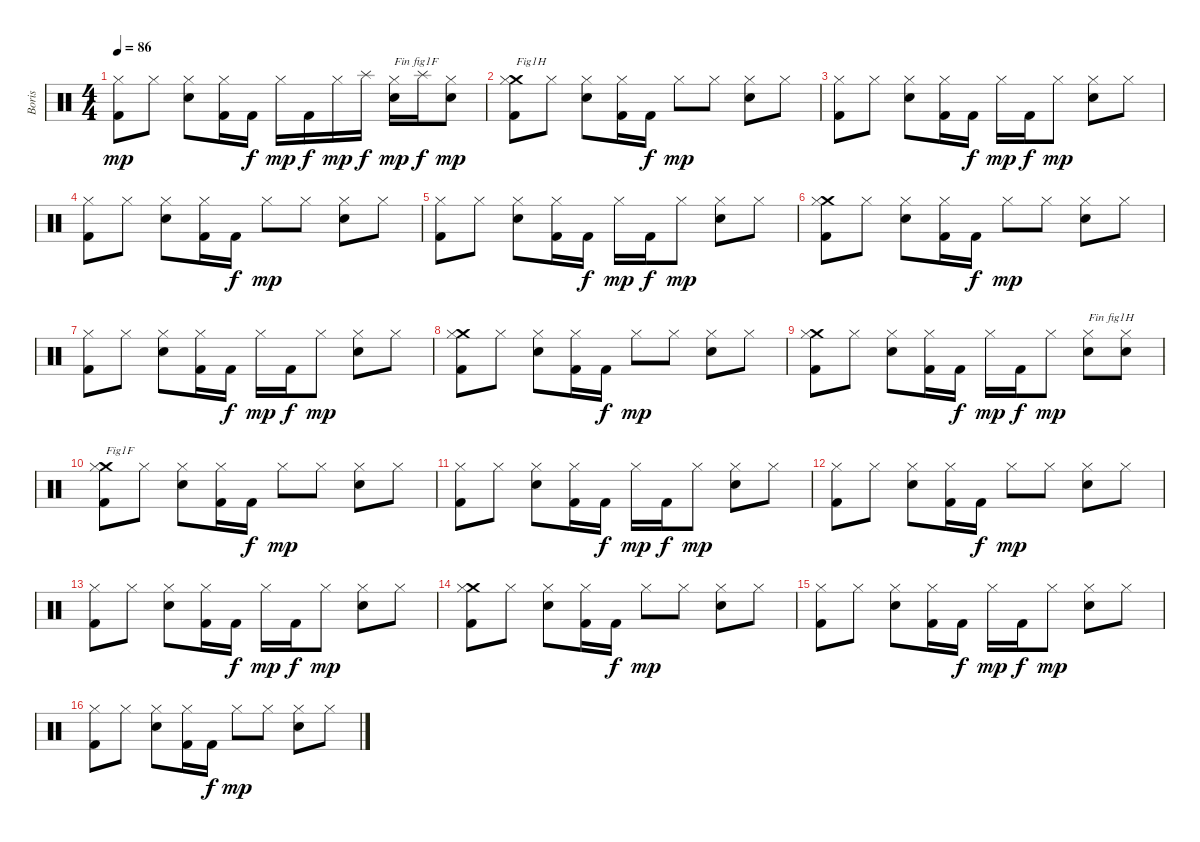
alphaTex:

\track ("Boris" "Boris") {instrument percussion}
\staff {score}
\articulation defaults
\ts (4 4)
\tempo 86
\clef neutral
\ks c
("Kick (hit) 2" "Hi-Hat (closed)").8{dy mp} "Hi-Hat (closed)".8 ("Electric Snare (hit)" "Hi-Hat (closed)").8 ("Kick (hit) 2" "Hi-Hat (closed)").16 "Kick (hit) 2".16{dy f} "Hi-Hat (closed)".16{dy mp} "Kick (hit) 2".16{dy f} "Hi-Hat (closed)".16{dy mp} "Splash (hit)".16{dy f} ("Electric Snare (hit)" "Hi-Hat (closed)").16{txt "Fin fig1F" dy mp} "Splash (hit)".16{dy f} ("Electric Snare (hit)" "Hi-Hat (closed)").8{dy mp} |
("Kick (hit) 2" "Crash medium (hit)" "Hi-Hat (closed)").8{txt "Fig1H"} "Hi-Hat (closed)".8 ("Electric Snare (hit)" "Hi-Hat (closed)").8 ("Kick (hit) 2" "Hi-Hat (closed)").16 "Kick (hit) 2".16{dy f} "Hi-Hat (closed)".8{dy mp} "Hi-Hat (closed)".8 ("Electric Snare (hit)" "Hi-Hat (closed)").8 "Hi-Hat (closed)".8 |
("Kick (hit) 2" "Hi-Hat (closed)").8 "Hi-Hat (closed)".8 ("Electric Snare (hit)" "Hi-Hat (closed)").8 ("Kick (hit) 2" "Hi-Hat (closed)").16 "Kick (hit) 2".16{dy f} "Hi-Hat (closed)".16{dy mp} "Kick (hit) 2".16{dy f} "Hi-Hat (closed)".8{dy mp} ("Electric Snare (hit)" "Hi-Hat (closed)").8 "Hi-Hat (closed)".8 |
("Kick (hit) 2" "Hi-Hat (closed)").8 "Hi-Hat (closed)".8 ("Electric Snare (hit)" "Hi-Hat (closed)").8 ("Kick (hit) 2" "Hi-Hat (closed)").16 "Kick (hit) 2".16{dy f} "Hi-Hat (closed)".8{dy mp} "Hi-Hat (closed)".8 ("Electric Snare (hit)" "Hi-Hat (closed)").8 "Hi-Hat (closed)".8 |
("Kick (hit) 2" "Hi-Hat (closed)").8 "Hi-Hat (closed)".8 ("Electric Snare (hit)" "Hi-Hat (closed)").8 ("Kick (hit) 2" "Hi-Hat (closed)").16 "Kick (hit) 2".16{dy f} "Hi-Hat (closed)".16{dy mp} "Kick (hit) 2".16{dy f} "Hi-Hat (closed)".8{dy mp} ("Electric Snare (hit)" "Hi-Hat (closed)").8 "Hi-Hat (closed)".8 |
("Kick (hit) 2" "Crash medium (hit)" "Hi-Hat (closed)").8 "Hi-Hat (closed)".8 ("Electric Snare (hit)" "Hi-Hat (closed)").8 ("Kick (hit) 2" "Hi-Hat (closed)").16 "Kick (hit) 2".16{dy f} "Hi-Hat (closed)".8{dy mp} "Hi-Hat (closed)".8 ("Electric Snare (hit)" "Hi-Hat (closed)").8 "Hi-Hat (closed)".8 |
("Kick (hit) 2" "Hi-Hat (closed)").8 "Hi-Hat (closed)".8 ("Electric Snare (hit)" "Hi-Hat (closed)").8 ("Kick (hit) 2" "Hi-Hat (closed)").16 "Kick (hit) 2".16{dy f} "Hi-Hat (closed)".16{dy mp} "Kick (hit) 2".16{dy f} "Hi-Hat (closed)".8{dy mp} ("Electric Snare (hit)" "Hi-Hat (closed)").8 "Hi-Hat (closed)".8 |
("Kick (hit) 2" "Crash medium (hit)" "Hi-Hat (closed)").8 "Hi-Hat (closed)".8 ("Electric Snare (hit)" "Hi-Hat (closed)").8 ("Kick (hit) 2" "Hi-Hat (closed)").16 "Kick (hit) 2".16{dy f} "Hi-Hat (closed)".8{dy mp} "Hi-Hat (closed)".8 ("Electric Snare (hit)" "Hi-Hat (closed)").8 "Hi-Hat (closed)".8 |
("Kick (hit) 2" "Crash medium (hit)" "Hi-Hat (closed)").8 "Hi-Hat (closed)".8 ("Electric Snare (hit)" "Hi-Hat (closed)").8 ("Kick (hit) 2" "Hi-Hat (closed)").16 "Kick (hit) 2".16{dy f} "Hi-Hat (closed)".16{dy mp} "Kick (hit) 2".16{dy f} "Hi-Hat (closed)".8{dy mp} ("Electric Snare (hit)" "Hi-Hat (closed)").8{txt "Fin fig1H"} ("Electric Snare (hit)" "Hi-Hat (closed)").8 |
("Kick (hit) 2" "Crash medium (hit)" "Hi-Hat (closed)").8{txt "Fig1F"} "Hi-Hat (closed)".8 ("Electric Snare (hit)" "Hi-Hat (closed)").8 ("Kick (hit) 2" "Hi-Hat (closed)").16 "Kick (hit) 2".16{dy f} "Hi-Hat (closed)".8{dy mp} "Hi-Hat (closed)".8 ("Electric Snare (hit)" "Hi-Hat (closed)").8 "Hi-Hat (closed)".8 |
("Kick (hit) 2" "Hi-Hat (closed)").8 "Hi-Hat (closed)".8 ("Electric Snare (hit)" "Hi-Hat (closed)").8 ("Kick (hit) 2" "Hi-Hat (closed)").16 "Kick (hit) 2".16{dy f} "Hi-Hat (closed)".16{dy mp} "Kick (hit) 2".16{dy f} "Hi-Hat (closed)".8{dy mp} ("Electric Snare (hit)" "Hi-Hat (closed)").8 "Hi-Hat (closed)".8 |
("Kick (hit) 2" "Hi-Hat (closed)").8 "Hi-Hat (closed)".8 ("Electric Snare (hit)" "Hi-Hat (closed)").8 ("Kick (hit) 2" "Hi-Hat (closed)").16 "Kick (hit) 2".16{dy f} "Hi-Hat (closed)".8{dy mp} "Hi-Hat (closed)".8 ("Electric Snare (hit)" "Hi-Hat (closed)").8 "Hi-Hat (closed)".8 |
("Kick (hit) 2" "Hi-Hat (closed)").8 "Hi-Hat (closed)".8 ("Electric Snare (hit)" "Hi-Hat (closed)").8 ("Kick (hit) 2" "Hi-Hat (closed)").16 "Kick (hit) 2".16{dy f} "Hi-Hat (closed)".16{dy mp} "Kick (hit) 2".16{dy f} "Hi-Hat (closed)".8{dy mp} ("Electric Snare (hit)" "Hi-Hat (closed)").8 "Hi-Hat (closed)".8 |
("Kick (hit) 2" "Crash medium (hit)" "Hi-Hat (closed)").8 "Hi-Hat (closed)".8 ("Electric Snare (hit)" "Hi-Hat (closed)").8 ("Kick (hit) 2" "Hi-Hat (closed)").16 "Kick (hit) 2".16{dy f} "Hi-Hat (closed)".8{dy mp} "Hi-Hat (closed)".8 ("Electric Snare (hit)" "Hi-Hat (closed)").8 "Hi-Hat (closed)".8 |
("Kick (hit) 2" "Hi-Hat (closed)").8 "Hi-Hat (closed)".8 ("Electric Snare (hit)" "Hi-Hat (closed)").8 ("Kick (hit) 2" "Hi-Hat (closed)").16 "Kick (hit) 2".16{dy f} "Hi-Hat (closed)".16{dy mp} "Kick (hit) 2".16{dy f} "Hi-Hat (closed)".8{dy mp} ("Electric Snare (hit)" "Hi-Hat (closed)").8 "Hi-Hat (closed)".8 |
("Kick (hit) 2" "Hi-Hat (closed)").8 "Hi-Hat (closed)".8 ("Electric Snare (hit)" "Hi-Hat (closed)").8 ("Kick (hit) 2" "Hi-Hat (closed)").16 "Kick (hit) 2".16{dy f} "Hi-Hat (closed)".8{dy mp} "Hi-Hat (closed)".8 ("Electric Snare (hit)" "Hi-Hat (closed)").8 "Hi-Hat (closed)".8
